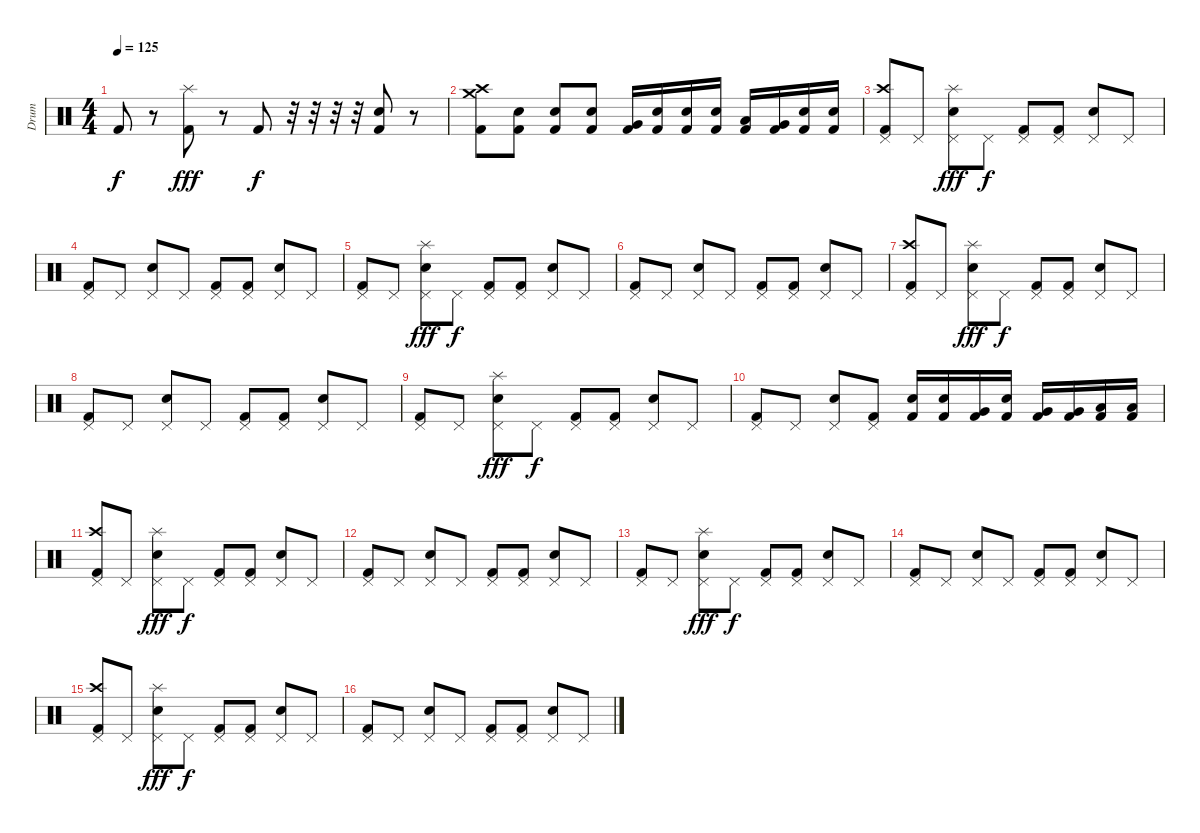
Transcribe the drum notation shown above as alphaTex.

\track ("Drum" "Drum") {instrument percussion}
\staff {score}
\articulation defaults
\ts (4 4)
\tempo 125
\clef neutral
\ks c "Kick (hit) 2".8{dy f}
r.8 ("Splash (hit)" "Kick (hit) 2").8{dy fff} r.8 "Kick (hit) 2".8{dy f} r.32 r.32 r.32 r.32 ("Snare (hit) 2" "Kick (hit) 2").8 r.8 |
("Crash high (hit)" "Crash medium (hit)" "Kick (hit) 2").8 ("Electric Snare (hit)" "Kick (hit) 2").8 ("Electric Snare (hit)" "Kick (hit) 2").8 ("Electric Snare (hit)" "Kick (hit) 2").8 ("Very Low Tom (hit)" "Kick (hit) 2").16 ("Electric Snare (hit)" "Kick (hit) 2").16 ("Electric Snare (hit)" "Kick (hit) 2").16 ("Electric Snare (hit)" "Kick (hit) 2").16 ("Low Floor Tom (hit)" "Kick (hit) 2").16 ("Very Low Tom (hit)" "Kick (hit) 2").16 ("Electric Snare (hit)" "Kick (hit) 2").16 ("Electric Snare (hit)" "Kick (hit) 2").16 |
("Crash high (hit)" "Pedal Hi-Hat (hit)" "Kick (hit) 2").8 "Pedal Hi-Hat (hit)".8 ("Electric Snare (hit)" "Splash (hit)" "Pedal Hi-Hat (hit)").8{dy fff} "Pedal Hi-Hat (hit)".8{dy f} ("Pedal Hi-Hat (hit)" "Kick (hit) 2").8 ("Pedal Hi-Hat (hit)" "Kick (hit) 2").8 ("Electric Snare (hit)" "Pedal Hi-Hat (hit)").8 "Pedal Hi-Hat (hit)".8 |
("Pedal Hi-Hat (hit)" "Kick (hit) 2").8 "Pedal Hi-Hat (hit)".8 ("Electric Snare (hit)" "Pedal Hi-Hat (hit)").8 "Pedal Hi-Hat (hit)".8 ("Pedal Hi-Hat (hit)" "Kick (hit) 2").8 ("Pedal Hi-Hat (hit)" "Kick (hit) 2").8 ("Electric Snare (hit)" "Pedal Hi-Hat (hit)").8 "Pedal Hi-Hat (hit)".8 |
("Pedal Hi-Hat (hit)" "Kick (hit) 2").8 "Pedal Hi-Hat (hit)".8 ("Electric Snare (hit)" "Splash (hit)" "Pedal Hi-Hat (hit)").8{dy fff} "Pedal Hi-Hat (hit)".8{dy f} ("Pedal Hi-Hat (hit)" "Kick (hit) 2").8 ("Pedal Hi-Hat (hit)" "Kick (hit) 2").8 ("Electric Snare (hit)" "Pedal Hi-Hat (hit)").8 "Pedal Hi-Hat (hit)".8 |
("Pedal Hi-Hat (hit)" "Kick (hit) 2").8 "Pedal Hi-Hat (hit)".8 ("Electric Snare (hit)" "Pedal Hi-Hat (hit)").8 "Pedal Hi-Hat (hit)".8 ("Pedal Hi-Hat (hit)" "Kick (hit) 2").8 ("Pedal Hi-Hat (hit)" "Kick (hit) 2").8 ("Electric Snare (hit)" "Pedal Hi-Hat (hit)").8 "Pedal Hi-Hat (hit)".8 |
("Crash high (hit)" "Pedal Hi-Hat (hit)" "Kick (hit) 2").8 "Pedal Hi-Hat (hit)".8 ("Electric Snare (hit)" "Splash (hit)" "Pedal Hi-Hat (hit)").8{dy fff} "Pedal Hi-Hat (hit)".8{dy f} ("Pedal Hi-Hat (hit)" "Kick (hit) 2").8 ("Pedal Hi-Hat (hit)" "Kick (hit) 2").8 ("Electric Snare (hit)" "Pedal Hi-Hat (hit)").8 "Pedal Hi-Hat (hit)".8 |
("Pedal Hi-Hat (hit)" "Kick (hit) 2").8 "Pedal Hi-Hat (hit)".8 ("Electric Snare (hit)" "Pedal Hi-Hat (hit)").8 "Pedal Hi-Hat (hit)".8 ("Pedal Hi-Hat (hit)" "Kick (hit) 2").8 ("Pedal Hi-Hat (hit)" "Kick (hit) 2").8 ("Electric Snare (hit)" "Pedal Hi-Hat (hit)").8 "Pedal Hi-Hat (hit)".8 |
("Pedal Hi-Hat (hit)" "Kick (hit) 2").8 "Pedal Hi-Hat (hit)".8 ("Electric Snare (hit)" "Splash (hit)" "Pedal Hi-Hat (hit)").8{dy fff} "Pedal Hi-Hat (hit)".8{dy f} ("Pedal Hi-Hat (hit)" "Kick (hit) 2").8 ("Pedal Hi-Hat (hit)" "Kick (hit) 2").8 ("Electric Snare (hit)" "Pedal Hi-Hat (hit)").8 "Pedal Hi-Hat (hit)".8 |
("Pedal Hi-Hat (hit)" "Kick (hit) 2").8 "Pedal Hi-Hat (hit)".8 ("Electric Snare (hit)" "Pedal Hi-Hat (hit)").8 ("Pedal Hi-Hat (hit)" "Kick (hit) 2").8 ("Electric Snare (hit)" "Kick (hit) 2").16 ("Electric Snare (hit)" "Kick (hit) 2").16 ("Very Low Tom (hit)" "Kick (hit) 2").16 ("Electric Snare (hit)" "Kick (hit) 2").16 ("Very Low Tom (hit)" "Kick (hit) 2").16 ("Very Low Tom (hit)" "Kick (hit) 2").16 ("Low Floor Tom (hit)" "Kick (hit) 2").16 ("Low Floor Tom (hit)" "Kick (hit) 2").16 |
("Crash high (hit)" "Pedal Hi-Hat (hit)" "Kick (hit) 2").8 "Pedal Hi-Hat (hit)".8 ("Electric Snare (hit)" "Splash (hit)" "Pedal Hi-Hat (hit)").8{dy fff} "Pedal Hi-Hat (hit)".8{dy f} ("Pedal Hi-Hat (hit)" "Kick (hit) 2").8 ("Pedal Hi-Hat (hit)" "Kick (hit) 2").8 ("Electric Snare (hit)" "Pedal Hi-Hat (hit)").8 "Pedal Hi-Hat (hit)".8 |
("Pedal Hi-Hat (hit)" "Kick (hit) 2").8 "Pedal Hi-Hat (hit)".8 ("Electric Snare (hit)" "Pedal Hi-Hat (hit)").8 "Pedal Hi-Hat (hit)".8 ("Pedal Hi-Hat (hit)" "Kick (hit) 2").8 ("Pedal Hi-Hat (hit)" "Kick (hit) 2").8 ("Electric Snare (hit)" "Pedal Hi-Hat (hit)").8 "Pedal Hi-Hat (hit)".8 |
("Pedal Hi-Hat (hit)" "Kick (hit) 2").8 "Pedal Hi-Hat (hit)".8 ("Electric Snare (hit)" "Splash (hit)" "Pedal Hi-Hat (hit)").8{dy fff} "Pedal Hi-Hat (hit)".8{dy f} ("Pedal Hi-Hat (hit)" "Kick (hit) 2").8 ("Pedal Hi-Hat (hit)" "Kick (hit) 2").8 ("Electric Snare (hit)" "Pedal Hi-Hat (hit)").8 "Pedal Hi-Hat (hit)".8 |
("Pedal Hi-Hat (hit)" "Kick (hit) 2").8 "Pedal Hi-Hat (hit)".8 ("Electric Snare (hit)" "Pedal Hi-Hat (hit)").8 "Pedal Hi-Hat (hit)".8 ("Pedal Hi-Hat (hit)" "Kick (hit) 2").8 ("Pedal Hi-Hat (hit)" "Kick (hit) 2").8 ("Electric Snare (hit)" "Pedal Hi-Hat (hit)").8 "Pedal Hi-Hat (hit)".8 |
("Crash high (hit)" "Pedal Hi-Hat (hit)" "Kick (hit) 2").8 "Pedal Hi-Hat (hit)".8 ("Electric Snare (hit)" "Splash (hit)" "Pedal Hi-Hat (hit)").8{dy fff} "Pedal Hi-Hat (hit)".8{dy f} ("Pedal Hi-Hat (hit)" "Kick (hit) 2").8 ("Pedal Hi-Hat (hit)" "Kick (hit) 2").8 ("Electric Snare (hit)" "Pedal Hi-Hat (hit)").8 "Pedal Hi-Hat (hit)".8 |
("Pedal Hi-Hat (hit)" "Kick (hit) 2").8 "Pedal Hi-Hat (hit)".8 ("Electric Snare (hit)" "Pedal Hi-Hat (hit)").8 "Pedal Hi-Hat (hit)".8 ("Pedal Hi-Hat (hit)" "Kick (hit) 2").8 ("Pedal Hi-Hat (hit)" "Kick (hit) 2").8 ("Electric Snare (hit)" "Pedal Hi-Hat (hit)").8 "Pedal Hi-Hat (hit)".8
